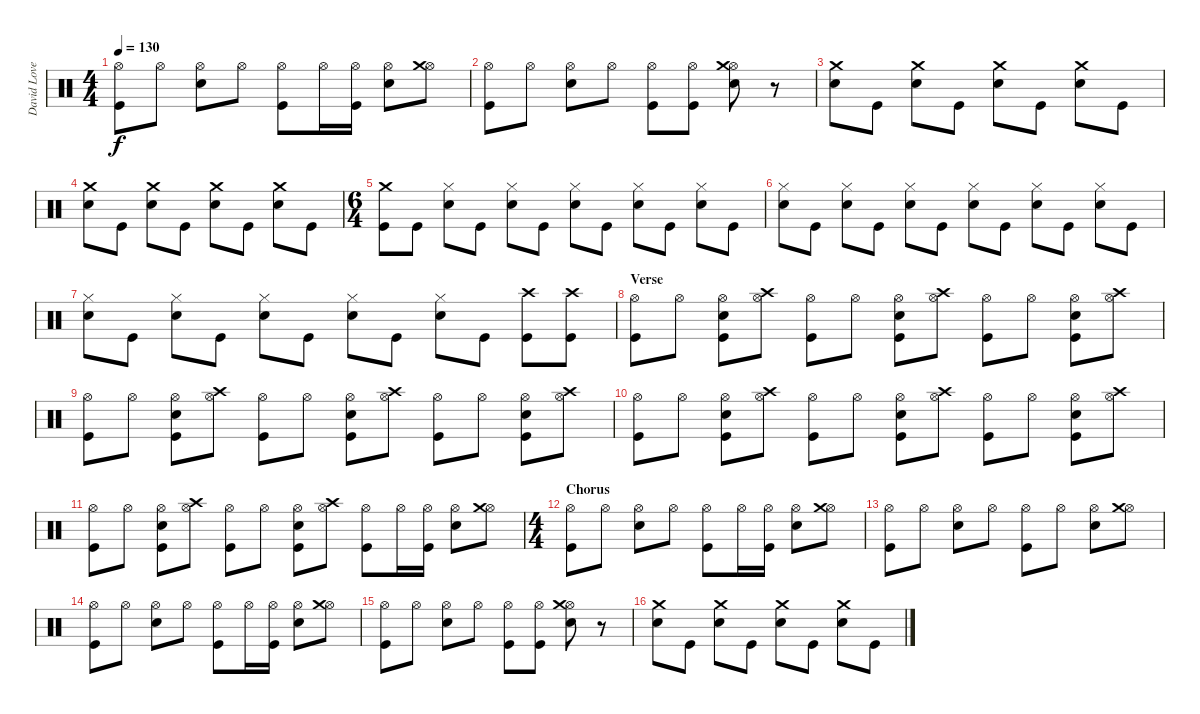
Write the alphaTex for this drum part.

\track ("David Lovering" "David Love") {instrument percussion}
\staff {score}
\articulation defaults
\ts (4 4)
\tempo 130
\clef neutral
\ks c
("Hi-Hat (open)" "Kick (hit)").8{dy f} "Hi-Hat (open)".8 ("Hi-Hat (open)" "Snare (hit) 2").8 "Hi-Hat (open)".8 ("Hi-Hat (open)" "Kick (hit)").8 "Hi-Hat (open)".16 ("Hi-Hat (open)" "Kick (hit)").16 ("Hi-Hat (open)" "Snare (hit) 2").8 ("Hi-Hat (open)" "Crash medium (hit)").8 |
("Hi-Hat (open)" "Kick (hit)").8 "Hi-Hat (open)".8 ("Hi-Hat (open)" "Snare (hit) 2").8 "Hi-Hat (open)".8 ("Hi-Hat (open)" "Kick (hit)").8 ("Hi-Hat (open)" "Kick (hit)").8 ("Hi-Hat (open)" "Crash medium (hit)" "Snare (hit) 2").8 r.8 |
("Crash medium (hit)" "Snare (hit) 2").8 "Kick (hit)".8 ("Crash medium (hit)" "Snare (hit) 2").8 "Kick (hit)".8 ("Crash medium (hit)" "Snare (hit) 2").8 "Kick (hit)".8 ("Crash medium (hit)" "Snare (hit) 2").8 "Kick (hit)".8 |
("Crash medium (hit)" "Snare (hit) 2").8 "Kick (hit)".8 ("Crash medium (hit)" "Snare (hit) 2").8 "Kick (hit)".8 ("Crash medium (hit)" "Snare (hit) 2").8 "Kick (hit)".8 ("Crash medium (hit)" "Snare (hit) 2").8 "Kick (hit)".8 |
\ts (6 4)
("Crash medium (hit)" "Kick (hit)").8 "Kick (hit)".8 ("Hi-Hat (closed)" "Snare (hit) 2").8 "Kick (hit)".8 ("Hi-Hat (closed)" "Snare (hit) 2").8 "Kick (hit)".8 ("Hi-Hat (closed)" "Snare (hit) 2").8 "Kick (hit)".8 ("Hi-Hat (closed)" "Snare (hit) 2").8 "Kick (hit)".8 ("Hi-Hat (closed)" "Snare (hit) 2").8 "Kick (hit)".8 |
("Hi-Hat (closed)" "Snare (hit) 2").8 "Kick (hit)".8 ("Hi-Hat (closed)" "Snare (hit) 2").8 "Kick (hit)".8 ("Hi-Hat (closed)" "Snare (hit) 2").8 "Kick (hit)".8 ("Hi-Hat (closed)" "Snare (hit) 2").8 "Kick (hit)".8 ("Hi-Hat (closed)" "Snare (hit) 2").8 "Kick (hit)".8 ("Hi-Hat (closed)" "Snare (hit) 2").8 "Kick (hit)".8 |
("Hi-Hat (closed)" "Snare (hit) 2").8 "Kick (hit)".8 ("Hi-Hat (closed)" "Snare (hit) 2").8 "Kick (hit)".8 ("Hi-Hat (closed)" "Snare (hit) 2").8 "Kick (hit)".8 ("Hi-Hat (closed)" "Snare (hit) 2").8 "Kick (hit)".8 ("Hi-Hat (closed)" "Snare (hit) 2").8 "Kick (hit)".8 ("Crash high (hit)" "Kick (hit)").8 ("Crash high (hit)" "Kick (hit)").8 |
\section ("" "Verse")
("Hi-Hat (open)" "Kick (hit)").8 "Hi-Hat (open)".8 ("Hi-Hat (open)" "Snare (hit) 2" "Kick (hit)").8 ("Hi-Hat (open)" "Crash high (hit)").8 ("Hi-Hat (open)" "Kick (hit)").8 "Hi-Hat (open)".8 ("Hi-Hat (open)" "Snare (hit) 2" "Kick (hit)").8 ("Hi-Hat (open)" "Crash high (hit)").8 ("Hi-Hat (open)" "Kick (hit)").8 "Hi-Hat (open)".8 ("Hi-Hat (open)" "Snare (hit) 2" "Kick (hit)").8 ("Hi-Hat (open)" "Crash high (hit)").8 |
("Hi-Hat (open)" "Kick (hit)").8 "Hi-Hat (open)".8 ("Hi-Hat (open)" "Snare (hit) 2" "Kick (hit)").8 ("Hi-Hat (open)" "Crash high (hit)").8 ("Hi-Hat (open)" "Kick (hit)").8 "Hi-Hat (open)".8 ("Hi-Hat (open)" "Snare (hit) 2" "Kick (hit)").8 ("Hi-Hat (open)" "Crash high (hit)").8 ("Hi-Hat (open)" "Kick (hit)").8 "Hi-Hat (open)".8 ("Hi-Hat (open)" "Snare (hit) 2" "Kick (hit)").8 ("Hi-Hat (open)" "Crash high (hit)").8 |
("Hi-Hat (open)" "Kick (hit)").8 "Hi-Hat (open)".8 ("Hi-Hat (open)" "Snare (hit) 2" "Kick (hit)").8 ("Hi-Hat (open)" "Crash high (hit)").8 ("Hi-Hat (open)" "Kick (hit)").8 "Hi-Hat (open)".8 ("Hi-Hat (open)" "Snare (hit) 2" "Kick (hit)").8 ("Hi-Hat (open)" "Crash high (hit)").8 ("Hi-Hat (open)" "Kick (hit)").8 "Hi-Hat (open)".8 ("Hi-Hat (open)" "Snare (hit) 2" "Kick (hit)").8 ("Hi-Hat (open)" "Crash high (hit)").8 |
("Hi-Hat (open)" "Kick (hit)").8 "Hi-Hat (open)".8 ("Hi-Hat (open)" "Snare (hit) 2" "Kick (hit)").8 ("Hi-Hat (open)" "Crash high (hit)").8 ("Hi-Hat (open)" "Kick (hit)").8 "Hi-Hat (open)".8 ("Hi-Hat (open)" "Snare (hit) 2" "Kick (hit)").8 ("Hi-Hat (open)" "Crash high (hit)").8 ("Hi-Hat (open)" "Kick (hit)").8 "Hi-Hat (open)".16 ("Hi-Hat (open)" "Kick (hit)").16 ("Hi-Hat (open)" "Snare (hit) 2").8 ("Hi-Hat (open)" "Crash medium (hit)").8 |
\ts (4 4)
\section ("" "Chorus")
("Hi-Hat (open)" "Kick (hit)").8 "Hi-Hat (open)".8 ("Hi-Hat (open)" "Snare (hit) 2").8 "Hi-Hat (open)".8 ("Hi-Hat (open)" "Kick (hit)").8 "Hi-Hat (open)".16 ("Hi-Hat (open)" "Kick (hit)").16 ("Hi-Hat (open)" "Snare (hit) 2").8 ("Hi-Hat (open)" "Crash medium (hit)").8 |
("Hi-Hat (open)" "Kick (hit)").8 "Hi-Hat (open)".8 ("Hi-Hat (open)" "Snare (hit) 2").8 "Hi-Hat (open)".8 ("Hi-Hat (open)" "Kick (hit)").8 "Hi-Hat (open)".8 ("Hi-Hat (open)" "Snare (hit) 2").8 ("Hi-Hat (open)" "Crash medium (hit)").8 |
("Hi-Hat (open)" "Kick (hit)").8 "Hi-Hat (open)".8 ("Hi-Hat (open)" "Snare (hit) 2").8 "Hi-Hat (open)".8 ("Hi-Hat (open)" "Kick (hit)").8 "Hi-Hat (open)".16 ("Hi-Hat (open)" "Kick (hit)").16 ("Hi-Hat (open)" "Snare (hit) 2").8 ("Hi-Hat (open)" "Crash medium (hit)").8 |
("Hi-Hat (open)" "Kick (hit)").8 "Hi-Hat (open)".8 ("Hi-Hat (open)" "Snare (hit) 2").8 "Hi-Hat (open)".8 ("Hi-Hat (open)" "Kick (hit)").8 ("Hi-Hat (open)" "Kick (hit)").8 ("Hi-Hat (open)" "Crash medium (hit)" "Snare (hit) 2").8 r.8 |
("Crash medium (hit)" "Snare (hit) 2").8 "Kick (hit)".8 ("Crash medium (hit)" "Snare (hit) 2").8 "Kick (hit)".8 ("Crash medium (hit)" "Snare (hit) 2").8 "Kick (hit)".8 ("Crash medium (hit)" "Snare (hit) 2").8 "Kick (hit)".8
